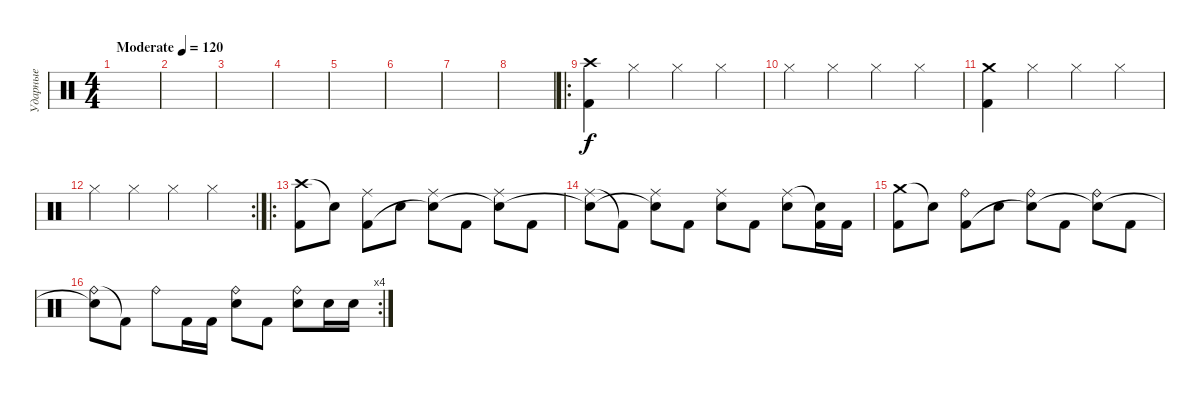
\track ("Ударные" "Ударные") {instrument percussion}
\staff {score}
\articulation defaults
\ts (4 4)
\tempo (120 "Moderate")
\clef neutral
\ks c
|
|
|
|
|
|
|
|
\ro
("Kick (hit) 2" "Crash high (hit)").4 "Hi-Hat (closed)".4 "Hi-Hat (closed)".4 "Hi-Hat (closed)".4 |
"Hi-Hat (closed)".4 "Hi-Hat (closed)".4 "Hi-Hat (closed)".4 "Hi-Hat (closed)".4 |
("Crash medium (hit)" "Kick (hit) 2").4 "Hi-Hat (closed)".4 "Hi-Hat (closed)".4 "Hi-Hat (closed)".4 |
\rc 2 "Hi-Hat (closed)".4 "Hi-Hat (closed)".4 "Hi-Hat (closed)".4 "Hi-Hat (closed)".4
|
\ro
("Crash high (hit)" "Kick (hit) 2").8 "Snare (hit)"{t}.8 ("Ride (middle)" "Kick (hit) 2").8 "Snare (hit) 2".8 ("Ride (middle)" "Snare (hit)"{t}).8 "Kick (hit) 2".8 ("Ride (middle)" "Snare (hit)"{t}).8 "Kick (hit) 2".8 |
("Ride (middle)" "Snare (hit)"{t}).8 "Kick (hit) 2"{t}.8 ("Ride (middle)" "Snare (hit) 2"{t}).8 "Kick (hit) 2".8 ("Ride (middle)" "Snare (hit) 2").8 "Kick (hit) 2".8 ("Ride (middle)" "Snare (hit) 2").8 ("Snare (hit)"{t} "Kick (hit) 2").16 "Kick (hit) 2".16 |
("Crash medium (hit)" "Kick (hit) 2").8 "Snare (hit)"{t}.8 ("Ride (bell)" "Kick (hit) 2").8 "Snare (hit) 2".8 ("Ride (bell)" "Snare (hit)"{t}).8 "Kick (hit) 2".8 ("Ride (bell)" "Snare (hit)"{t}).8 "Kick (hit) 2".8 |
\rc 4
("Ride (bell)" "Snare (hit)"{t}).8 "Kick (hit) 2"{t}.8 "Ride (bell)".8 "Kick (hit) 2".16 "Kick (hit) 2".16 ("Ride (bell)" "Snare (hit) 2").8 "Kick (hit) 2".8 ("Ride (bell)" "Snare (hit) 2").8 "Snare (hit) 2".16 "Snare (hit) 2".16
